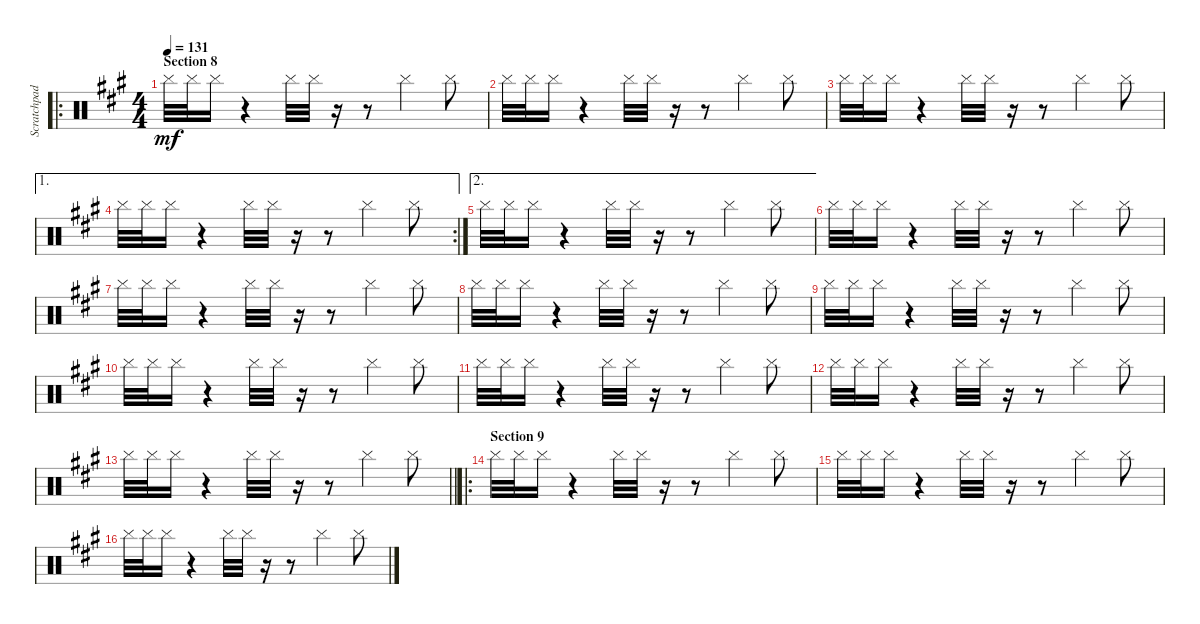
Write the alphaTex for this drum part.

\track ("Scratchpad" "Scratchpad") {instrument percussion bank 2}
\staff {score}
\articulation defaults
\ro
\ts (4 4)
\section ("" "Section 8")
\tempo 131
\clef neutral
\ks f#minor "Cymbal (hit)".32{dy mf} "Cymbal (hit)".32 "Cymbal (hit)".16
r.4 "Cymbal (hit)".32 "Cymbal (hit)".32 r.16 r.8 "Cymbal (hit)".4 "Cymbal (hit)".8 |
"Cymbal (hit)".32 "Cymbal (hit)".32 "Cymbal (hit)".16 r.4 "Cymbal (hit)".32 "Cymbal (hit)".32 r.16 r.8 "Cymbal (hit)".4 "Cymbal (hit)".8 |
"Cymbal (hit)".32 "Cymbal (hit)".32 "Cymbal (hit)".16 r.4 "Cymbal (hit)".32 "Cymbal (hit)".32 r.16 r.8 "Cymbal (hit)".4 "Cymbal (hit)".8 |
\ae 1
\rc 2 "Cymbal (hit)".32 "Cymbal (hit)".32 "Cymbal (hit)".16
r.4 "Cymbal (hit)".32 "Cymbal (hit)".32 r.16 r.8 "Cymbal (hit)".4 "Cymbal (hit)".8 |
\ae 2 "Cymbal (hit)".32 "Cymbal (hit)".32 "Cymbal (hit)".16
r.4 "Cymbal (hit)".32 "Cymbal (hit)".32 r.16 r.8 "Cymbal (hit)".4 "Cymbal (hit)".8 |
"Cymbal (hit)".32 "Cymbal (hit)".32 "Cymbal (hit)".16 r.4 "Cymbal (hit)".32 "Cymbal (hit)".32 r.16 r.8 "Cymbal (hit)".4 "Cymbal (hit)".8 |
"Cymbal (hit)".32 "Cymbal (hit)".32 "Cymbal (hit)".16 r.4 "Cymbal (hit)".32 "Cymbal (hit)".32 r.16 r.8 "Cymbal (hit)".4 "Cymbal (hit)".8 |
"Cymbal (hit)".32 "Cymbal (hit)".32 "Cymbal (hit)".16 r.4 "Cymbal (hit)".32 "Cymbal (hit)".32 r.16 r.8 "Cymbal (hit)".4 "Cymbal (hit)".8 |
"Cymbal (hit)".32 "Cymbal (hit)".32 "Cymbal (hit)".16 r.4 "Cymbal (hit)".32 "Cymbal (hit)".32 r.16 r.8 "Cymbal (hit)".4 "Cymbal (hit)".8 |
"Cymbal (hit)".32 "Cymbal (hit)".32 "Cymbal (hit)".16 r.4 "Cymbal (hit)".32 "Cymbal (hit)".32 r.16 r.8 "Cymbal (hit)".4 "Cymbal (hit)".8 |
"Cymbal (hit)".32 "Cymbal (hit)".32 "Cymbal (hit)".16 r.4 "Cymbal (hit)".32 "Cymbal (hit)".32 r.16 r.8 "Cymbal (hit)".4 "Cymbal (hit)".8 |
"Cymbal (hit)".32 "Cymbal (hit)".32 "Cymbal (hit)".16 r.4 "Cymbal (hit)".32 "Cymbal (hit)".32 r.16 r.8 "Cymbal (hit)".4 "Cymbal (hit)".8 |
\barLineRight lightlight "Cymbal (hit)".32 "Cymbal (hit)".32 "Cymbal (hit)".16
r.4 "Cymbal (hit)".32 "Cymbal (hit)".32 r.16 r.8 "Cymbal (hit)".4 "Cymbal (hit)".8 |
\ro
\section ("" "Section 9")
"Cymbal (hit)".32 "Cymbal (hit)".32 "Cymbal (hit)".16 r.4 "Cymbal (hit)".32 "Cymbal (hit)".32 r.16 r.8 "Cymbal (hit)".4 "Cymbal (hit)".8 |
"Cymbal (hit)".32 "Cymbal (hit)".32 "Cymbal (hit)".16 r.4 "Cymbal (hit)".32 "Cymbal (hit)".32 r.16 r.8 "Cymbal (hit)".4 "Cymbal (hit)".8 |
"Cymbal (hit)".32 "Cymbal (hit)".32 "Cymbal (hit)".16 r.4 "Cymbal (hit)".32 "Cymbal (hit)".32 r.16 r.8 "Cymbal (hit)".4 "Cymbal (hit)".8
